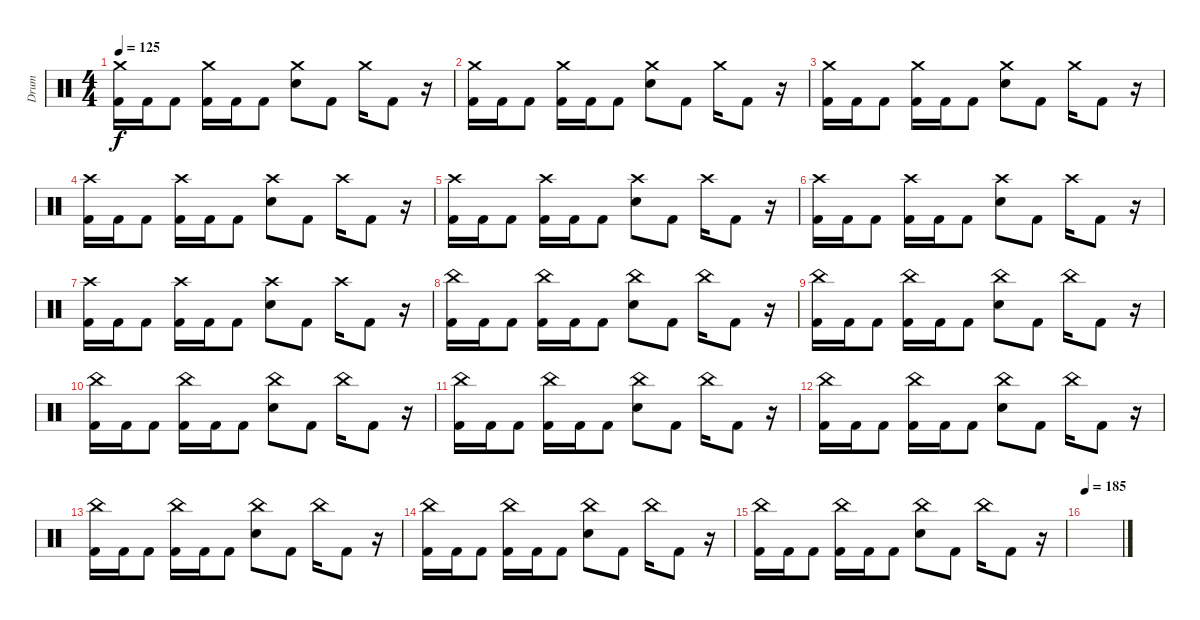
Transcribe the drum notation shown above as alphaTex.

\track ("Drum" "Drum") {instrument percussion}
\staff {score}
\articulation defaults
\ts (4 4)
\tempo 125
\clef neutral
\ks c
("Kick (hit) 2" "Crash medium (hit)").16{dy f} "Kick (hit) 2".16 "Kick (hit) 2".8 ("Kick (hit) 2" "Crash medium (hit)").16 "Kick (hit) 2".16 "Kick (hit) 2".8 ("Electric Snare (hit)" "Crash medium (hit)").8 "Kick (hit) 2".8 "Crash medium (hit)".16 "Kick (hit) 2".8 r.16 |
("Kick (hit) 2" "Crash medium (hit)").16 "Kick (hit) 2".16 "Kick (hit) 2".8 ("Kick (hit) 2" "Crash medium (hit)").16 "Kick (hit) 2".16 "Kick (hit) 2".8 ("Electric Snare (hit)" "Crash medium (hit)").8 "Kick (hit) 2".8 "Crash medium (hit)".16 "Kick (hit) 2".8 r.16 |
("Kick (hit) 2" "Crash medium (hit)").16 "Kick (hit) 2".16 "Kick (hit) 2".8 ("Kick (hit) 2" "Crash medium (hit)").16 "Kick (hit) 2".16 "Kick (hit) 2".8 ("Electric Snare (hit)" "Crash medium (hit)").8 "Kick (hit) 2".8 "Crash medium (hit)".16 "Kick (hit) 2".8 r.16 |
("Kick (hit) 2" "Crash high (hit)").16 "Kick (hit) 2".16 "Kick (hit) 2".8 ("Kick (hit) 2" "Crash high (hit)").16 "Kick (hit) 2".16 "Kick (hit) 2".8 ("Electric Snare (hit)" "Crash high (hit)").8 "Kick (hit) 2".8 "Crash high (hit)".16 "Kick (hit) 2".8 r.16 |
("Kick (hit) 2" "Crash high (hit)").16 "Kick (hit) 2".16 "Kick (hit) 2".8 ("Kick (hit) 2" "Crash high (hit)").16 "Kick (hit) 2".16 "Kick (hit) 2".8 ("Electric Snare (hit)" "Crash high (hit)").8 "Kick (hit) 2".8 "Crash high (hit)".16 "Kick (hit) 2".8 r.16 |
("Kick (hit) 2" "Crash high (hit)").16 "Kick (hit) 2".16 "Kick (hit) 2".8 ("Kick (hit) 2" "Crash high (hit)").16 "Kick (hit) 2".16 "Kick (hit) 2".8 ("Electric Snare (hit)" "Crash high (hit)").8 "Kick (hit) 2".8 "Crash high (hit)".16 "Kick (hit) 2".8 r.16 |
("Kick (hit) 2" "Crash high (hit)").16 "Kick (hit) 2".16 "Kick (hit) 2".8 ("Kick (hit) 2" "Crash high (hit)").16 "Kick (hit) 2".16 "Kick (hit) 2".8 ("Electric Snare (hit)" "Crash high (hit)").8 "Kick (hit) 2".8 "Crash high (hit)".16 "Kick (hit) 2".8 r.16 |
("Kick (hit) 2" "China (hit)").16 "Kick (hit) 2".16 "Kick (hit) 2".8 ("Kick (hit) 2" "China (hit)").16 "Kick (hit) 2".16 "Kick (hit) 2".8 ("Electric Snare (hit)" "China (hit)").8 "Kick (hit) 2".8 "China (hit)".16 "Kick (hit) 2".8 r.16 |
("Kick (hit) 2" "China (hit)").16 "Kick (hit) 2".16 "Kick (hit) 2".8 ("Kick (hit) 2" "China (hit)").16 "Kick (hit) 2".16 "Kick (hit) 2".8 ("Electric Snare (hit)" "China (hit)").8 "Kick (hit) 2".8 "China (hit)".16 "Kick (hit) 2".8 r.16 |
("Kick (hit) 2" "China (hit)").16 "Kick (hit) 2".16 "Kick (hit) 2".8 ("Kick (hit) 2" "China (hit)").16 "Kick (hit) 2".16 "Kick (hit) 2".8 ("Electric Snare (hit)" "China (hit)").8 "Kick (hit) 2".8 "China (hit)".16 "Kick (hit) 2".8 r.16 |
("Kick (hit) 2" "China (hit)").16 "Kick (hit) 2".16 "Kick (hit) 2".8 ("Kick (hit) 2" "China (hit)").16 "Kick (hit) 2".16 "Kick (hit) 2".8 ("Electric Snare (hit)" "China (hit)").8 "Kick (hit) 2".8 "China (hit)".16 "Kick (hit) 2".8 r.16 |
("Kick (hit) 2" "China (hit)").16 "Kick (hit) 2".16 "Kick (hit) 2".8 ("Kick (hit) 2" "China (hit)").16 "Kick (hit) 2".16 "Kick (hit) 2".8 ("Electric Snare (hit)" "China (hit)").8 "Kick (hit) 2".8 "China (hit)".16 "Kick (hit) 2".8 r.16 |
("Kick (hit) 2" "China (hit)").16 "Kick (hit) 2".16 "Kick (hit) 2".8 ("Kick (hit) 2" "China (hit)").16 "Kick (hit) 2".16 "Kick (hit) 2".8 ("Electric Snare (hit)" "China (hit)").8 "Kick (hit) 2".8 "China (hit)".16 "Kick (hit) 2".8 r.16 |
("Kick (hit) 2" "China (hit)").16 "Kick (hit) 2".16 "Kick (hit) 2".8 ("Kick (hit) 2" "China (hit)").16 "Kick (hit) 2".16 "Kick (hit) 2".8 ("Electric Snare (hit)" "China (hit)").8 "Kick (hit) 2".8 "China (hit)".16 "Kick (hit) 2".8 r.16 |
("Kick (hit) 2" "China (hit)").16 "Kick (hit) 2".16 "Kick (hit) 2".8 ("Kick (hit) 2" "China (hit)").16 "Kick (hit) 2".16 "Kick (hit) 2".8 ("Electric Snare (hit)" "China (hit)").8 "Kick (hit) 2".8 "China (hit)".16 "Kick (hit) 2".8 r.16 |
\tempo 185
